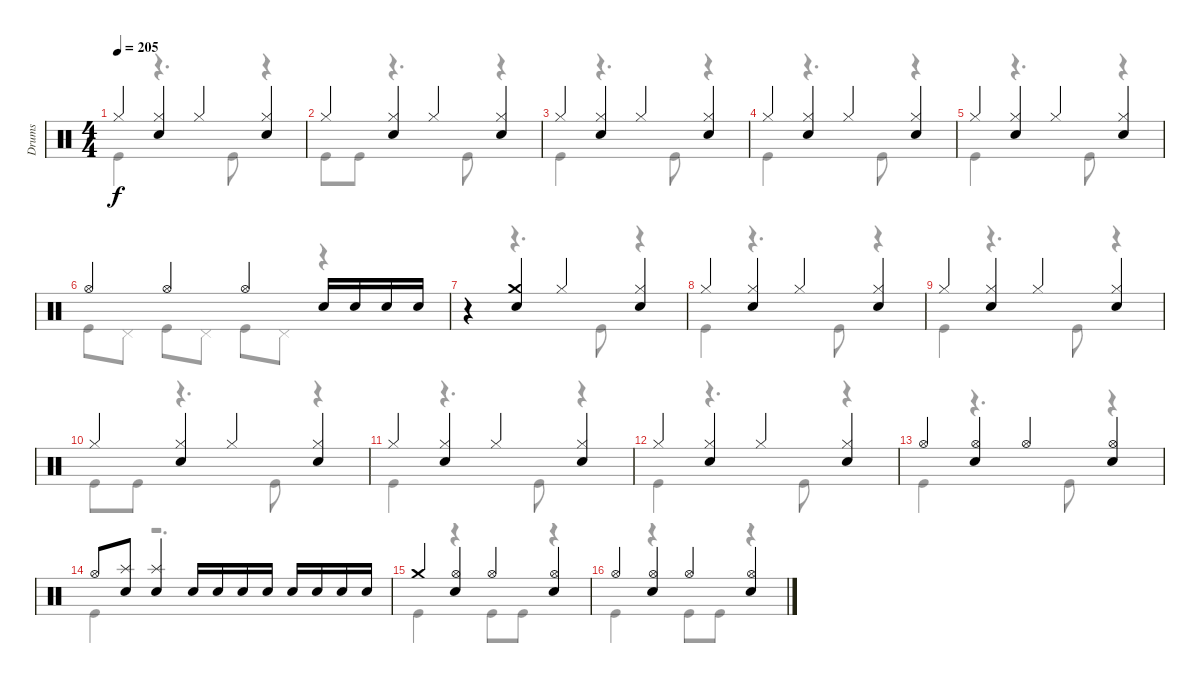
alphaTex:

\track ("Drums" "Drums") {instrument percussion}
\staff {score}
\articulation defaults
\voice
\ts (4 4)
\tempo 205
\clef neutral
\ks c "Hi-Hat (closed)".4{dy f}
("Hi-Hat (closed)" "Snare (hit) 2").4 "Hi-Hat (closed)".4 ("Hi-Hat (closed)" "Snare (hit) 2").4 |
"Hi-Hat (closed)".4 ("Hi-Hat (closed)" "Snare (hit) 2").4 "Hi-Hat (closed)".4 ("Hi-Hat (closed)" "Snare (hit) 2").4 |
"Hi-Hat (closed)".4 ("Hi-Hat (closed)" "Snare (hit) 2").4 "Hi-Hat (closed)".4 ("Hi-Hat (closed)" "Snare (hit) 2").4 |
"Hi-Hat (closed)".4 ("Hi-Hat (closed)" "Snare (hit) 2").4 "Hi-Hat (closed)".4 ("Hi-Hat (closed)" "Snare (hit) 2").4 |
"Hi-Hat (closed)".4 ("Hi-Hat (closed)" "Snare (hit) 2").4 "Hi-Hat (closed)".4 ("Hi-Hat (closed)" "Snare (hit) 2").4 |
"Hi-Hat (open)".4 "Hi-Hat (open)".4 "Hi-Hat (open)".4 "Snare (hit) 2".16 "Snare (hit) 2".16 "Snare (hit) 2".16 "Snare (hit) 2".16 |
r.4 ("Crash medium (hit)" "Snare (hit) 2").4 "Hi-Hat (closed)".4 ("Hi-Hat (closed)" "Snare (hit) 2").4 |
"Hi-Hat (closed)".4 ("Hi-Hat (closed)" "Snare (hit) 2").4 "Hi-Hat (closed)".4 ("Hi-Hat (closed)" "Snare (hit) 2").4 |
"Hi-Hat (closed)".4 ("Hi-Hat (closed)" "Snare (hit) 2").4 "Hi-Hat (closed)".4 ("Hi-Hat (closed)" "Snare (hit) 2").4 |
"Hi-Hat (closed)".4 ("Hi-Hat (closed)" "Snare (hit) 2").4 "Hi-Hat (closed)".4 ("Hi-Hat (closed)" "Snare (hit) 2").4 |
"Hi-Hat (closed)".4 ("Hi-Hat (closed)" "Snare (hit) 2").4 "Hi-Hat (closed)".4 ("Hi-Hat (closed)" "Snare (hit) 2").4 |
"Hi-Hat (closed)".4 ("Hi-Hat (closed)" "Snare (hit) 2").4 "Hi-Hat (closed)".4 ("Hi-Hat (closed)" "Snare (hit) 2").4 |
"Hi-Hat (open)".4 ("Hi-Hat (open)" "Snare (hit) 2").4 "Hi-Hat (open)".4 ("Hi-Hat (open)" "Snare (hit) 2").4 |
"Hi-Hat (open)".8 ("Splash (hit)" "Snare (hit) 2").8 ("Splash (hit)" "Snare (hit) 2").4 "Snare (hit) 2".16 "Snare (hit) 2".16 "Snare (hit) 2".16 "Snare (hit) 2".16 "Snare (hit) 2".16 "Snare (hit) 2".16 "Snare (hit) 2".16 "Snare (hit) 2".16 |
"Crash medium (hit)".4 ("Hi-Hat (open)" "Snare (hit) 2").4 "Hi-Hat (open)".4 ("Hi-Hat (open)" "Snare (hit) 2").4 |
"Hi-Hat (open)".4 ("Hi-Hat (open)" "Snare (hit) 2").4 "Hi-Hat (open)".4 ("Hi-Hat (open)" "Snare (hit) 2").4
\voice
\clef neutral
\ottava regular
\simile none
\ks c "Kick (hit)".4{dy f}
r.4{d} "Kick (hit)".8 r.4 |
"Kick (hit)".8 "Kick (hit)".8 r.4{d} "Kick (hit)".8 r.4 |
"Kick (hit)".4 r.4{d} "Kick (hit)".8 r.4 |
"Kick (hit)".4 r.4{d} "Kick (hit)".8 r.4 |
"Kick (hit)".4 r.4{d} "Kick (hit)".8 r.4 |
"Kick (hit)".8 "Pedal Hi-Hat (hit)".8 "Kick (hit)".8 "Pedal Hi-Hat (hit)".8 "Kick (hit)".8 "Pedal Hi-Hat (hit)".8 r.4 |
r.4 r.4{d} "Kick (hit)".8 r.4 |
"Kick (hit)".4 r.4{d} "Kick (hit)".8 r.4 |
"Kick (hit)".4 r.4{d} "Kick (hit)".8 r.4 |
"Kick (hit)".8 "Kick (hit)".8 r.4{d} "Kick (hit)".8 r.4 |
"Kick (hit)".4 r.4{d} "Kick (hit)".8 r.4 |
"Kick (hit)".4 r.4{d} "Kick (hit)".8 r.4 |
"Kick (hit)".4 r.4{d} "Kick (hit)".8 r.4 |
"Kick (hit)".4 r.2{d} |
"Kick (hit)".4 r.4 "Kick (hit)".8 "Kick (hit)".8 r.4 |
"Kick (hit)".4 r.4 "Kick (hit)".8 "Kick (hit)".8 r.4
